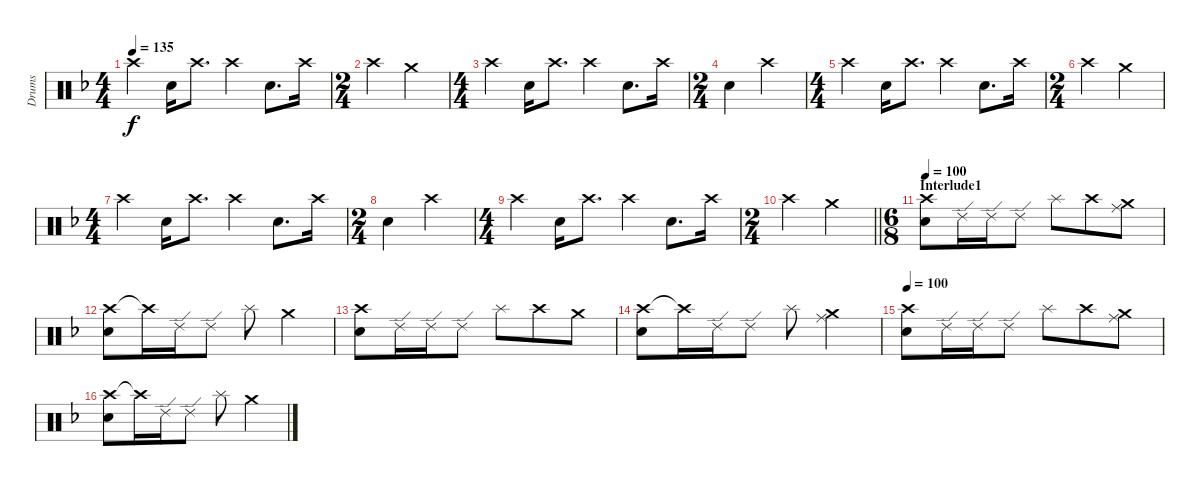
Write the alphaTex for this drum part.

\track ("Drums" "Drums") {instrument percussion}
\staff {score}
\articulation defaults
\ts (4 4)
\tempo 135
\clef neutral
\ks dminor "Crash high (hit)".4{dy f} "Snare (hit) 2".16 "Crash high (hit)".8{d} "Crash high (hit)".4 "Snare (hit) 2".8{d} "Crash high (hit)".16
|
\ts (2 4)
"Crash high (hit)".4 "Crash medium (hit)".4 |
\ts (4 4)
"Crash high (hit)".4 "Snare (hit) 2".16 "Crash high (hit)".8{d} "Crash high (hit)".4 "Snare (hit) 2".8{d} "Crash high (hit)".16 |
\ts (2 4)
"Snare (hit) 2".4 "Crash high (hit)".4 |
\ts (4 4)
"Crash high (hit)".4 "Snare (hit) 2".16 "Crash high (hit)".8{d} "Crash high (hit)".4 "Snare (hit) 2".8{d} "Crash high (hit)".16 |
\ts (2 4)
"Crash high (hit)".4 "Crash medium (hit)".4 |
\ts (4 4)
"Crash high (hit)".4 "Snare (hit) 2".16 "Crash high (hit)".8{d} "Crash high (hit)".4 "Snare (hit) 2".8{d} "Crash high (hit)".16 |
\ts (2 4)
"Snare (hit) 2".4 "Crash high (hit)".4 |
\ts (4 4)
"Crash high (hit)".4 "Snare (hit) 2".16 "Crash high (hit)".8{d} "Crash high (hit)".4 "Snare (hit) 2".8{d} "Crash high (hit)".16 |
\ts (2 4)
\barLineRight lightlight "Crash high (hit)".4 "Crash medium (hit)".4
|
\ts (6 8)
\section ("" "Interlude1")
\tempo 90
\tempo 100
("Crash high (hit)" "Snare (hit) 2").8 "Ride (edge) 2".16 "Ride (edge) 2".16 "Ride (edge) 2".8 "Splash (hit)".8 "Crash high (hit)".8 ("Ride (middle)" "Crash medium (hit)").8 |
("Crash high (hit)" "Snare (hit) 2").8 "Crash high (hit)"{t}.16 "Ride (edge) 2".16 "Ride (edge) 2".8 "Splash (hit)".8 "Crash medium (hit)".4 |
("Crash high (hit)" "Snare (hit) 2").8 "Ride (edge) 2".16 "Ride (edge) 2".16 "Ride (edge) 2".8 "Splash (hit)".8 "Crash high (hit)".8 "Crash medium (hit)".8 |
("Crash high (hit)" "Snare (hit) 2").8 "Crash high (hit)"{t}.16 "Ride (edge) 2".16 "Ride (edge) 2".8 "Splash (hit)".8 ("Ride (middle)" "Crash medium (hit)").4 |
\tempo 90
\tempo 100
("Crash high (hit)" "Snare (hit) 2").8 "Ride (edge) 2".16 "Ride (edge) 2".16 "Ride (edge) 2".8 "Splash (hit)".8 "Crash high (hit)".8 ("Ride (middle)" "Crash medium (hit)").8 |
("Crash high (hit)" "Snare (hit) 2").8 "Crash high (hit)"{t}.16 "Ride (edge) 2".16 "Ride (edge) 2".8 "Splash (hit)".8 "Crash medium (hit)".4
